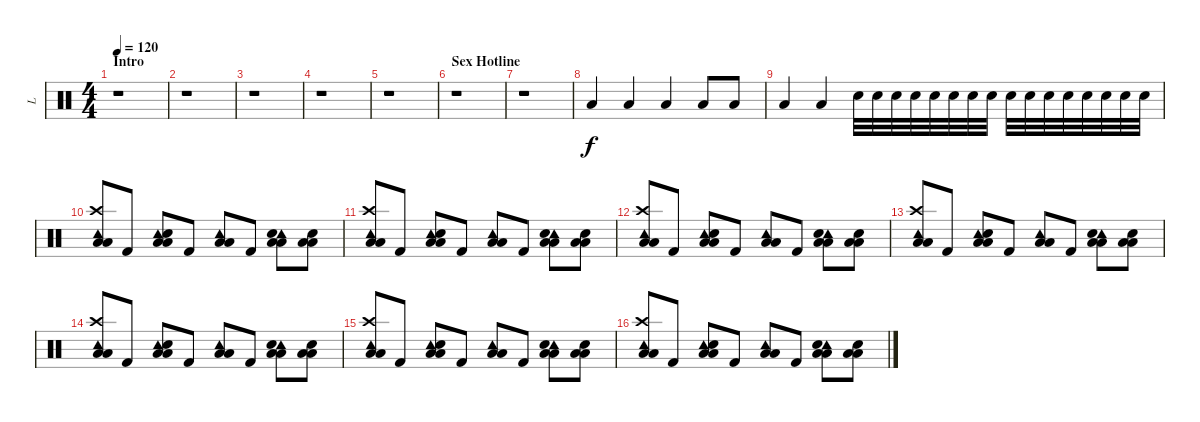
\track ("L" "L") {instrument percussion}
\staff {score}
\articulation defaults
\ts (4 4)
\section ("" "Intro")
\tempo 120
\clef neutral
\ks c
r.1{dy f} |
r.1 |
r.1 |
r.1 |
r.1 |
\section ("" "Sex Hotline")
r.1 |
r.1 |
"Low Floor Tom (hit)".4 "Low Floor Tom (hit)".4 "Low Floor Tom (hit)".4 "Low Floor Tom (hit)".8 "Low Floor Tom (hit)".8 |
"Low Floor Tom (hit)".4 "Low Floor Tom (hit)".4 "Electric Snare (hit)".32 "Electric Snare (hit)".32 "Electric Snare (hit)".32 "Electric Snare (hit)".32 "Electric Snare (hit)".32 "Electric Snare (hit)".32 "Electric Snare (hit)".32 "Electric Snare (hit)".32 "Electric Snare (hit)".32 "Electric Snare (hit)".32 "Electric Snare (hit)".32 "Electric Snare (hit)".32 "Electric Snare (hit)".32 "Electric Snare (hit)".32 "Electric Snare (hit)".32 "Electric Snare (hit)".32 |
("Crash high (hit)" "Tambourine (hit)" "Low Floor Tom (hit)" "Low Floor Tom (hit)").8 "Kick (hit) 2".8 ("Tambourine (hit)" "Electric Snare (hit)" "Low Floor Tom (hit)" "Low Floor Tom (hit)").8 "Kick (hit) 2".8 ("Tambourine (hit)" "Low Floor Tom (hit)" "Low Floor Tom (hit)").8 "Kick (hit) 2".8 ("Tambourine (hit)" "Electric Snare (hit)" "Low Floor Tom (hit)" "Low Floor Tom (hit)").8 ("Electric Snare (hit)" "Low Floor Tom (hit)" "Low Floor Tom (hit)").8 |
("Crash high (hit)" "Tambourine (hit)" "Low Floor Tom (hit)" "Low Floor Tom (hit)").8 "Kick (hit) 2".8 ("Tambourine (hit)" "Electric Snare (hit)" "Low Floor Tom (hit)" "Low Floor Tom (hit)").8 "Kick (hit) 2".8 ("Tambourine (hit)" "Low Floor Tom (hit)" "Low Floor Tom (hit)").8 "Kick (hit) 2".8 ("Tambourine (hit)" "Electric Snare (hit)" "Low Floor Tom (hit)" "Low Floor Tom (hit)").8 ("Electric Snare (hit)" "Low Floor Tom (hit)" "Low Floor Tom (hit)").8 |
("Crash high (hit)" "Tambourine (hit)" "Low Floor Tom (hit)" "Low Floor Tom (hit)").8 "Kick (hit) 2".8 ("Tambourine (hit)" "Electric Snare (hit)" "Low Floor Tom (hit)" "Low Floor Tom (hit)").8 "Kick (hit) 2".8 ("Tambourine (hit)" "Low Floor Tom (hit)" "Low Floor Tom (hit)").8 "Kick (hit) 2".8 ("Tambourine (hit)" "Electric Snare (hit)" "Low Floor Tom (hit)" "Low Floor Tom (hit)").8 ("Electric Snare (hit)" "Low Floor Tom (hit)" "Low Floor Tom (hit)").8 |
("Crash high (hit)" "Tambourine (hit)" "Low Floor Tom (hit)" "Low Floor Tom (hit)").8 "Kick (hit) 2".8 ("Tambourine (hit)" "Electric Snare (hit)" "Low Floor Tom (hit)" "Low Floor Tom (hit)").8 "Kick (hit) 2".8 ("Tambourine (hit)" "Low Floor Tom (hit)" "Low Floor Tom (hit)").8 "Kick (hit) 2".8 ("Tambourine (hit)" "Electric Snare (hit)" "Low Floor Tom (hit)" "Low Floor Tom (hit)").8 ("Electric Snare (hit)" "Low Floor Tom (hit)" "Low Floor Tom (hit)").8 |
("Crash high (hit)" "Tambourine (hit)" "Low Floor Tom (hit)" "Low Floor Tom (hit)").8 "Kick (hit) 2".8 ("Tambourine (hit)" "Electric Snare (hit)" "Low Floor Tom (hit)" "Low Floor Tom (hit)").8 "Kick (hit) 2".8 ("Tambourine (hit)" "Low Floor Tom (hit)" "Low Floor Tom (hit)").8 "Kick (hit) 2".8 ("Tambourine (hit)" "Electric Snare (hit)" "Low Floor Tom (hit)" "Low Floor Tom (hit)").8 ("Electric Snare (hit)" "Low Floor Tom (hit)" "Low Floor Tom (hit)").8 |
("Crash high (hit)" "Tambourine (hit)" "Low Floor Tom (hit)" "Low Floor Tom (hit)").8 "Kick (hit) 2".8 ("Tambourine (hit)" "Electric Snare (hit)" "Low Floor Tom (hit)" "Low Floor Tom (hit)").8 "Kick (hit) 2".8 ("Tambourine (hit)" "Low Floor Tom (hit)" "Low Floor Tom (hit)").8 "Kick (hit) 2".8 ("Tambourine (hit)" "Electric Snare (hit)" "Low Floor Tom (hit)" "Low Floor Tom (hit)").8 ("Electric Snare (hit)" "Low Floor Tom (hit)" "Low Floor Tom (hit)").8 |
("Crash high (hit)" "Tambourine (hit)" "Low Floor Tom (hit)" "Low Floor Tom (hit)").8 "Kick (hit) 2".8 ("Tambourine (hit)" "Electric Snare (hit)" "Low Floor Tom (hit)" "Low Floor Tom (hit)").8 "Kick (hit) 2".8 ("Tambourine (hit)" "Low Floor Tom (hit)" "Low Floor Tom (hit)").8 "Kick (hit) 2".8 ("Tambourine (hit)" "Electric Snare (hit)" "Low Floor Tom (hit)" "Low Floor Tom (hit)").8 ("Electric Snare (hit)" "Low Floor Tom (hit)" "Low Floor Tom (hit)").8
